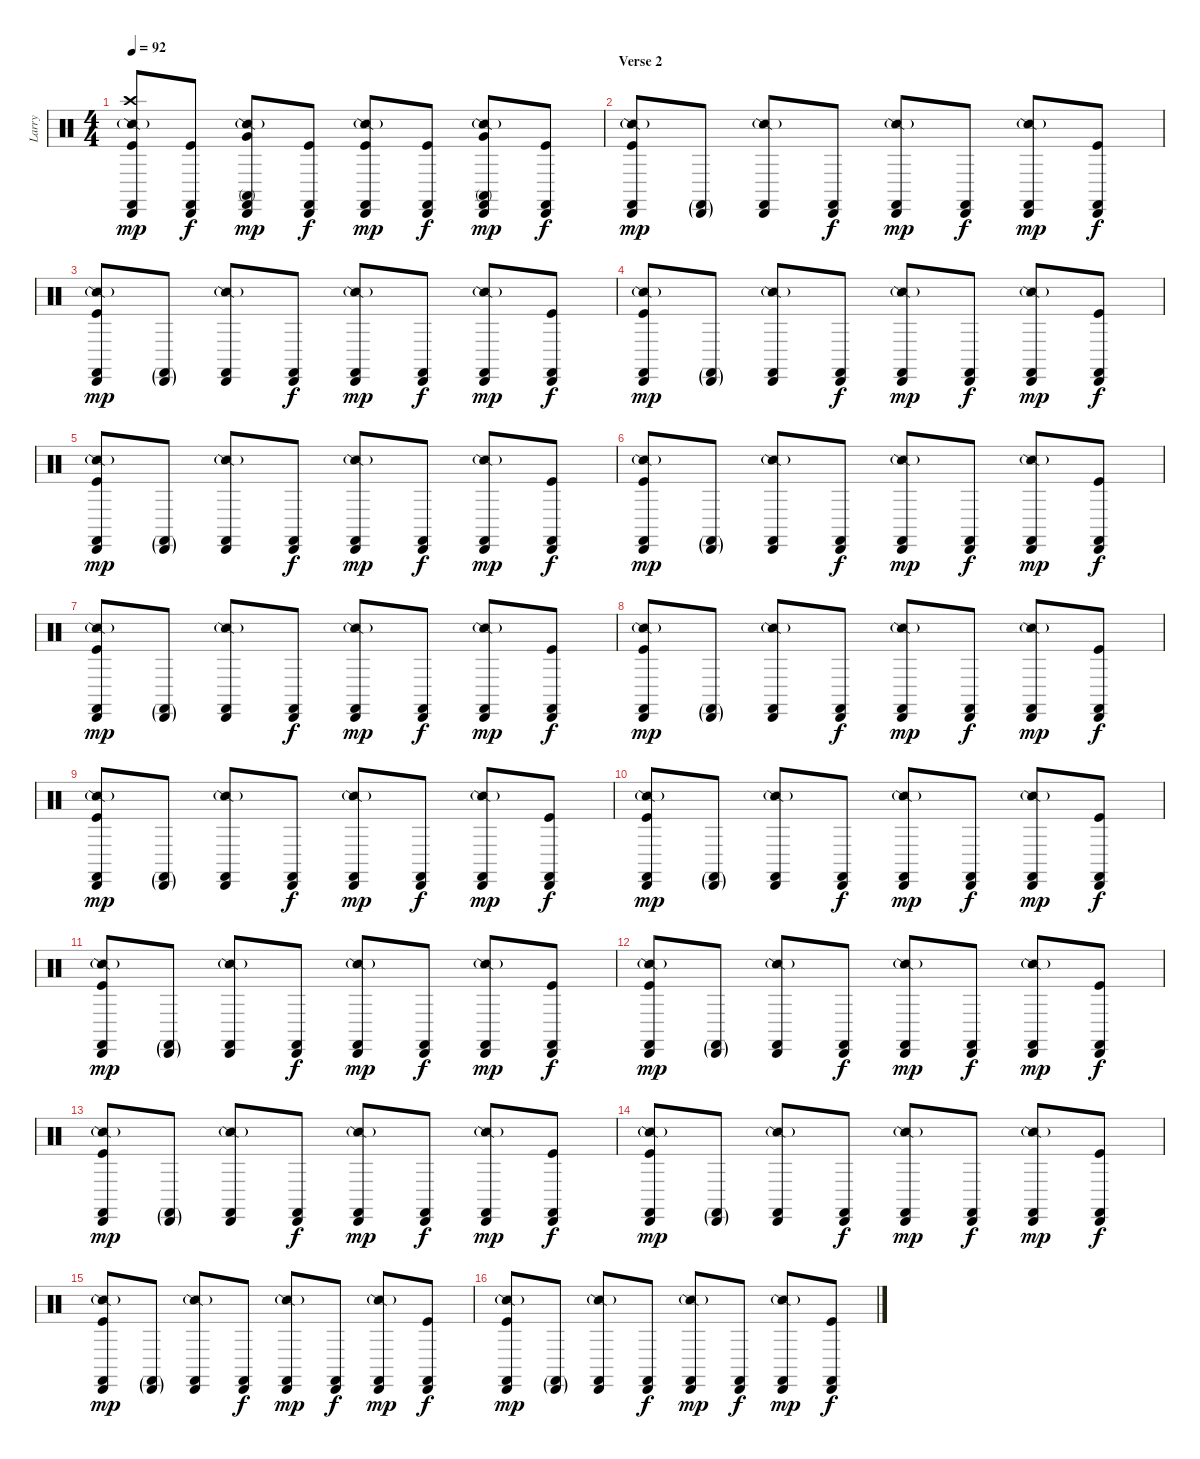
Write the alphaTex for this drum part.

\track ("Larry" "Larry") {instrument percussion}
\staff {score}
\articulation defaults
\ts (4 4)
\tempo 92
\clef neutral
\ks c
("Snare (side stick) 2"{g} "Castanets (hit)" "Cabasa (hit)" "Kick (hit)" "Crash high (hit)").8{dy mp} ("Castanets (hit)" "Cabasa (hit)" "Kick (hit)").8{dy f} ("Snare (side stick) 2"{g} "Castanets (hit)" "Cabasa (hit)" "Conga high (mute)" "Very Low Tom (hit)").8{dy mp} ("Castanets (hit)" "Cabasa (hit)" "Kick (hit)").8{dy f} ("Snare (side stick) 2"{g} "Castanets (hit)" "Cabasa (hit)" "Kick (hit)").8{dy mp} ("Castanets (hit)" "Cabasa (hit)" "Kick (hit)").8{dy f} ("Snare (side stick) 2"{g} "Castanets (hit)" "Cabasa (hit)" "Conga high (mute)" "Very Low Tom (hit)").8{dy mp} ("Castanets (hit)" "Cabasa (hit)" "Kick (hit)").8{dy f} |
\section ("" "Verse 2")
("Snare (side stick) 2"{g} "Castanets (hit)" "Cabasa (hit)" "Kick (hit)").8{dy mp} ("Castanets (hit)"{g} "Cabasa (hit)"{g}).8 ("Snare (side stick) 2"{g} "Castanets (hit)" "Cabasa (hit)").8 ("Castanets (hit)" "Cabasa (hit)").8{dy f} ("Snare (side stick) 2"{g} "Castanets (hit)" "Cabasa (hit)").8{dy mp} ("Castanets (hit)" "Cabasa (hit)").8{dy f} ("Snare (side stick) 2"{g} "Castanets (hit)" "Cabasa (hit)").8{dy mp} ("Castanets (hit)" "Cabasa (hit)" "Kick (hit)").8{dy f} |
("Snare (side stick) 2"{g} "Castanets (hit)" "Cabasa (hit)" "Kick (hit)").8{dy mp} ("Castanets (hit)"{g} "Cabasa (hit)"{g}).8 ("Snare (side stick) 2"{g} "Castanets (hit)" "Cabasa (hit)").8 ("Castanets (hit)" "Cabasa (hit)").8{dy f} ("Snare (side stick) 2"{g} "Castanets (hit)" "Cabasa (hit)").8{dy mp} ("Castanets (hit)" "Cabasa (hit)").8{dy f} ("Snare (side stick) 2"{g} "Castanets (hit)" "Cabasa (hit)").8{dy mp} ("Castanets (hit)" "Cabasa (hit)" "Kick (hit)").8{dy f} |
("Snare (side stick) 2"{g} "Castanets (hit)" "Cabasa (hit)" "Kick (hit)").8{dy mp} ("Castanets (hit)"{g} "Cabasa (hit)"{g}).8 ("Snare (side stick) 2"{g} "Castanets (hit)" "Cabasa (hit)").8 ("Castanets (hit)" "Cabasa (hit)").8{dy f} ("Snare (side stick) 2"{g} "Castanets (hit)" "Cabasa (hit)").8{dy mp} ("Castanets (hit)" "Cabasa (hit)").8{dy f} ("Snare (side stick) 2"{g} "Castanets (hit)" "Cabasa (hit)").8{dy mp} ("Castanets (hit)" "Cabasa (hit)" "Kick (hit)").8{dy f} |
("Snare (side stick) 2"{g} "Castanets (hit)" "Cabasa (hit)" "Kick (hit)").8{dy mp} ("Castanets (hit)"{g} "Cabasa (hit)"{g}).8 ("Snare (side stick) 2"{g} "Castanets (hit)" "Cabasa (hit)").8 ("Castanets (hit)" "Cabasa (hit)").8{dy f} ("Snare (side stick) 2"{g} "Castanets (hit)" "Cabasa (hit)").8{dy mp} ("Castanets (hit)" "Cabasa (hit)").8{dy f} ("Snare (side stick) 2"{g} "Castanets (hit)" "Cabasa (hit)").8{dy mp} ("Castanets (hit)" "Cabasa (hit)" "Kick (hit)").8{dy f} |
("Snare (side stick) 2"{g} "Castanets (hit)" "Cabasa (hit)" "Kick (hit)").8{dy mp} ("Castanets (hit)"{g} "Cabasa (hit)"{g}).8 ("Snare (side stick) 2"{g} "Castanets (hit)" "Cabasa (hit)").8 ("Castanets (hit)" "Cabasa (hit)").8{dy f} ("Snare (side stick) 2"{g} "Castanets (hit)" "Cabasa (hit)").8{dy mp} ("Castanets (hit)" "Cabasa (hit)").8{dy f} ("Snare (side stick) 2"{g} "Castanets (hit)" "Cabasa (hit)").8{dy mp} ("Castanets (hit)" "Cabasa (hit)" "Kick (hit)").8{dy f} |
("Snare (side stick) 2"{g} "Castanets (hit)" "Cabasa (hit)" "Kick (hit)").8{dy mp} ("Castanets (hit)"{g} "Cabasa (hit)"{g}).8 ("Snare (side stick) 2"{g} "Castanets (hit)" "Cabasa (hit)").8 ("Castanets (hit)" "Cabasa (hit)").8{dy f} ("Snare (side stick) 2"{g} "Castanets (hit)" "Cabasa (hit)").8{dy mp} ("Castanets (hit)" "Cabasa (hit)").8{dy f} ("Snare (side stick) 2"{g} "Castanets (hit)" "Cabasa (hit)").8{dy mp} ("Castanets (hit)" "Cabasa (hit)" "Kick (hit)").8{dy f} |
("Snare (side stick) 2"{g} "Castanets (hit)" "Cabasa (hit)" "Kick (hit)").8{dy mp} ("Castanets (hit)"{g} "Cabasa (hit)"{g}).8 ("Snare (side stick) 2"{g} "Castanets (hit)" "Cabasa (hit)").8 ("Castanets (hit)" "Cabasa (hit)").8{dy f} ("Snare (side stick) 2"{g} "Castanets (hit)" "Cabasa (hit)").8{dy mp} ("Castanets (hit)" "Cabasa (hit)").8{dy f} ("Snare (side stick) 2"{g} "Castanets (hit)" "Cabasa (hit)").8{dy mp} ("Castanets (hit)" "Cabasa (hit)" "Kick (hit)").8{dy f} |
("Snare (side stick) 2"{g} "Castanets (hit)" "Cabasa (hit)" "Kick (hit)").8{dy mp} ("Castanets (hit)"{g} "Cabasa (hit)"{g}).8 ("Snare (side stick) 2"{g} "Castanets (hit)" "Cabasa (hit)").8 ("Castanets (hit)" "Cabasa (hit)").8{dy f} ("Snare (side stick) 2"{g} "Castanets (hit)" "Cabasa (hit)").8{dy mp} ("Castanets (hit)" "Cabasa (hit)").8{dy f} ("Snare (side stick) 2"{g} "Castanets (hit)" "Cabasa (hit)").8{dy mp} ("Castanets (hit)" "Cabasa (hit)" "Kick (hit)").8{dy f} |
("Snare (side stick) 2"{g} "Castanets (hit)" "Cabasa (hit)" "Kick (hit)").8{dy mp} ("Castanets (hit)"{g} "Cabasa (hit)"{g}).8 ("Snare (side stick) 2"{g} "Castanets (hit)" "Cabasa (hit)").8 ("Castanets (hit)" "Cabasa (hit)").8{dy f} ("Snare (side stick) 2"{g} "Castanets (hit)" "Cabasa (hit)").8{dy mp} ("Castanets (hit)" "Cabasa (hit)").8{dy f} ("Snare (side stick) 2"{g} "Castanets (hit)" "Cabasa (hit)").8{dy mp} ("Castanets (hit)" "Cabasa (hit)" "Kick (hit)").8{dy f} |
("Snare (side stick) 2"{g} "Castanets (hit)" "Cabasa (hit)" "Kick (hit)").8{dy mp} ("Castanets (hit)"{g} "Cabasa (hit)"{g}).8 ("Snare (side stick) 2"{g} "Castanets (hit)" "Cabasa (hit)").8 ("Castanets (hit)" "Cabasa (hit)").8{dy f} ("Snare (side stick) 2"{g} "Castanets (hit)" "Cabasa (hit)").8{dy mp} ("Castanets (hit)" "Cabasa (hit)").8{dy f} ("Snare (side stick) 2"{g} "Castanets (hit)" "Cabasa (hit)").8{dy mp} ("Castanets (hit)" "Cabasa (hit)" "Kick (hit)").8{dy f} |
("Snare (side stick) 2"{g} "Castanets (hit)" "Cabasa (hit)" "Kick (hit)").8{dy mp} ("Castanets (hit)"{g} "Cabasa (hit)"{g}).8 ("Snare (side stick) 2"{g} "Castanets (hit)" "Cabasa (hit)").8 ("Castanets (hit)" "Cabasa (hit)").8{dy f} ("Snare (side stick) 2"{g} "Castanets (hit)" "Cabasa (hit)").8{dy mp} ("Castanets (hit)" "Cabasa (hit)").8{dy f} ("Snare (side stick) 2"{g} "Castanets (hit)" "Cabasa (hit)").8{dy mp} ("Castanets (hit)" "Cabasa (hit)" "Kick (hit)").8{dy f} |
("Snare (side stick) 2"{g} "Castanets (hit)" "Cabasa (hit)" "Kick (hit)").8{dy mp} ("Castanets (hit)"{g} "Cabasa (hit)"{g}).8 ("Snare (side stick) 2"{g} "Castanets (hit)" "Cabasa (hit)").8 ("Castanets (hit)" "Cabasa (hit)").8{dy f} ("Snare (side stick) 2"{g} "Castanets (hit)" "Cabasa (hit)").8{dy mp} ("Castanets (hit)" "Cabasa (hit)").8{dy f} ("Snare (side stick) 2"{g} "Castanets (hit)" "Cabasa (hit)").8{dy mp} ("Castanets (hit)" "Cabasa (hit)" "Kick (hit)").8{dy f} |
("Snare (side stick) 2"{g} "Castanets (hit)" "Cabasa (hit)" "Kick (hit)").8{dy mp} ("Castanets (hit)"{g} "Cabasa (hit)"{g}).8 ("Snare (side stick) 2"{g} "Castanets (hit)" "Cabasa (hit)").8 ("Castanets (hit)" "Cabasa (hit)").8{dy f} ("Snare (side stick) 2"{g} "Castanets (hit)" "Cabasa (hit)").8{dy mp} ("Castanets (hit)" "Cabasa (hit)").8{dy f} ("Snare (side stick) 2"{g} "Castanets (hit)" "Cabasa (hit)").8{dy mp} ("Castanets (hit)" "Cabasa (hit)" "Kick (hit)").8{dy f} |
("Snare (side stick) 2"{g} "Castanets (hit)" "Cabasa (hit)" "Kick (hit)").8{dy mp} ("Castanets (hit)"{g} "Cabasa (hit)"{g}).8 ("Snare (side stick) 2"{g} "Castanets (hit)" "Cabasa (hit)").8 ("Castanets (hit)" "Cabasa (hit)").8{dy f} ("Snare (side stick) 2"{g} "Castanets (hit)" "Cabasa (hit)").8{dy mp} ("Castanets (hit)" "Cabasa (hit)").8{dy f} ("Snare (side stick) 2"{g} "Castanets (hit)" "Cabasa (hit)").8{dy mp} ("Castanets (hit)" "Cabasa (hit)" "Kick (hit)").8{dy f} |
("Snare (side stick) 2"{g} "Castanets (hit)" "Cabasa (hit)" "Kick (hit)").8{dy mp} ("Castanets (hit)"{g} "Cabasa (hit)"{g}).8 ("Snare (side stick) 2"{g} "Castanets (hit)" "Cabasa (hit)").8 ("Castanets (hit)" "Cabasa (hit)").8{dy f} ("Snare (side stick) 2"{g} "Castanets (hit)" "Cabasa (hit)").8{dy mp} ("Castanets (hit)" "Cabasa (hit)").8{dy f} ("Snare (side stick) 2"{g} "Castanets (hit)" "Cabasa (hit)").8{dy mp} ("Castanets (hit)" "Cabasa (hit)" "Kick (hit)").8{dy f}
